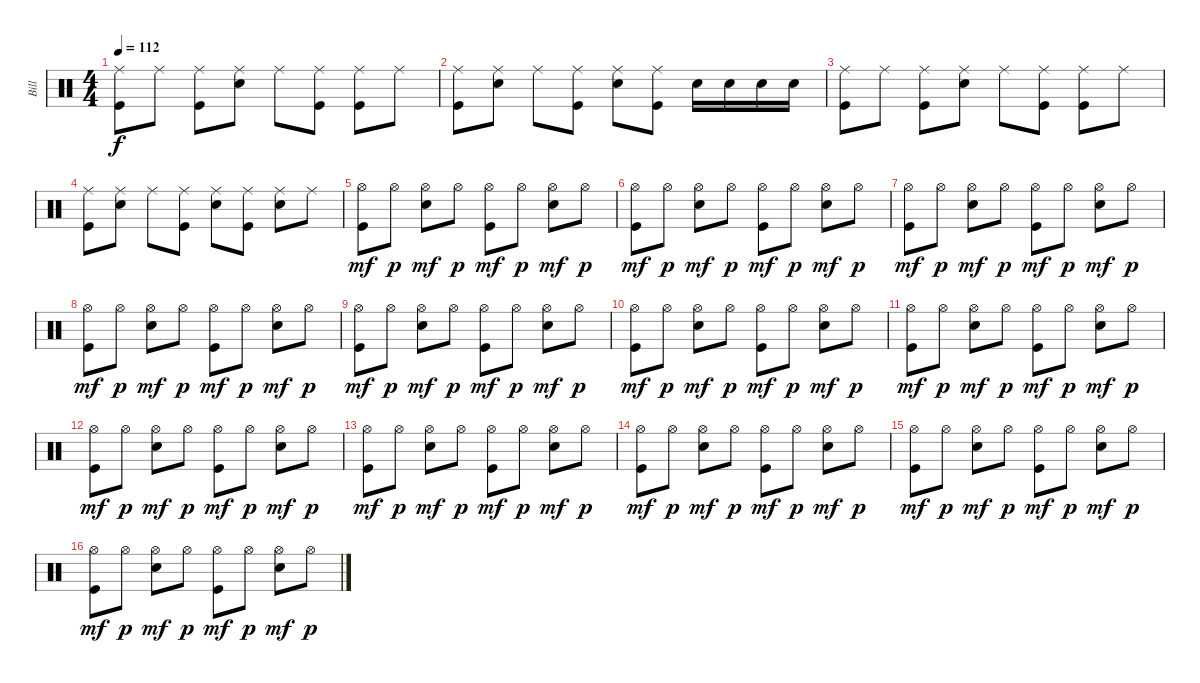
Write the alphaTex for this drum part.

\track ("Bill" "Bill") {instrument percussion}
\staff {score}
\articulation defaults
\ts (4 4)
\tempo 112
\clef neutral
\ks c
("Ride (middle)" "Kick (hit)").8{dy f} "Ride (middle)".8 ("Ride (middle)" "Kick (hit)").8 ("Ride (middle)" "Snare (hit) 2").8 "Ride (middle)".8 ("Ride (middle)" "Kick (hit)").8 ("Ride (middle)" "Kick (hit)").8 "Ride (middle)".8 |
("Ride (middle)" "Kick (hit)").8 ("Ride (middle)" "Snare (hit) 2").8 "Ride (middle)".8 ("Ride (middle)" "Kick (hit)").8 ("Ride (middle)" "Snare (hit) 2").8 ("Ride (middle)" "Kick (hit)").8 "Snare (hit) 2".16 "Snare (hit) 2".16 "Snare (hit) 2".16 "Snare (hit) 2".16 |
("Ride (middle)" "Kick (hit)").8 "Ride (middle)".8 ("Ride (middle)" "Kick (hit)").8 ("Ride (middle)" "Snare (hit) 2").8 "Ride (middle)".8 ("Ride (middle)" "Kick (hit)").8 ("Ride (middle)" "Kick (hit)").8 "Ride (middle)".8 |
("Ride (middle)" "Kick (hit)").8 ("Ride (middle)" "Snare (hit) 2").8 "Ride (middle)".8 ("Ride (middle)" "Kick (hit)").8 ("Ride (middle)" "Snare (hit) 2").8 ("Ride (middle)" "Kick (hit)").8 ("Ride (middle)" "Snare (hit) 2").8 "Ride (middle)".8 |
("Hi-Hat (open)" "Kick (hit)").8{dy mf} "Hi-Hat (open)".8{dy p} ("Hi-Hat (open)" "Snare (hit) 2").8{dy mf} "Hi-Hat (open)".8{dy p} ("Hi-Hat (open)" "Kick (hit)").8{dy mf} "Hi-Hat (open)".8{dy p} ("Hi-Hat (open)" "Snare (hit) 2").8{dy mf} "Hi-Hat (open)".8{dy p} |
("Hi-Hat (open)" "Kick (hit)").8{dy mf} "Hi-Hat (open)".8{dy p} ("Hi-Hat (open)" "Snare (hit) 2").8{dy mf} "Hi-Hat (open)".8{dy p} ("Hi-Hat (open)" "Kick (hit)").8{dy mf} "Hi-Hat (open)".8{dy p} ("Hi-Hat (open)" "Snare (hit) 2").8{dy mf} "Hi-Hat (open)".8{dy p} |
("Hi-Hat (open)" "Kick (hit)").8{dy mf} "Hi-Hat (open)".8{dy p} ("Hi-Hat (open)" "Snare (hit) 2").8{dy mf} "Hi-Hat (open)".8{dy p} ("Hi-Hat (open)" "Kick (hit)").8{dy mf} "Hi-Hat (open)".8{dy p} ("Hi-Hat (open)" "Snare (hit) 2").8{dy mf} "Hi-Hat (open)".8{dy p} |
("Hi-Hat (open)" "Kick (hit)").8{dy mf} "Hi-Hat (open)".8{dy p} ("Hi-Hat (open)" "Snare (hit) 2").8{dy mf} "Hi-Hat (open)".8{dy p} ("Hi-Hat (open)" "Kick (hit)").8{dy mf} "Hi-Hat (open)".8{dy p} ("Hi-Hat (open)" "Snare (hit) 2").8{dy mf} "Hi-Hat (open)".8{dy p} |
("Hi-Hat (open)" "Kick (hit)").8{dy mf} "Hi-Hat (open)".8{dy p} ("Hi-Hat (open)" "Snare (hit) 2").8{dy mf} "Hi-Hat (open)".8{dy p} ("Hi-Hat (open)" "Kick (hit)").8{dy mf} "Hi-Hat (open)".8{dy p} ("Hi-Hat (open)" "Snare (hit) 2").8{dy mf} "Hi-Hat (open)".8{dy p} |
("Hi-Hat (open)" "Kick (hit)").8{dy mf} "Hi-Hat (open)".8{dy p} ("Hi-Hat (open)" "Snare (hit) 2").8{dy mf} "Hi-Hat (open)".8{dy p} ("Hi-Hat (open)" "Kick (hit)").8{dy mf} "Hi-Hat (open)".8{dy p} ("Hi-Hat (open)" "Snare (hit) 2").8{dy mf} "Hi-Hat (open)".8{dy p} |
("Hi-Hat (open)" "Kick (hit)").8{dy mf} "Hi-Hat (open)".8{dy p} ("Hi-Hat (open)" "Snare (hit) 2").8{dy mf} "Hi-Hat (open)".8{dy p} ("Hi-Hat (open)" "Kick (hit)").8{dy mf} "Hi-Hat (open)".8{dy p} ("Hi-Hat (open)" "Snare (hit) 2").8{dy mf} "Hi-Hat (open)".8{dy p} |
("Hi-Hat (open)" "Kick (hit)").8{dy mf} "Hi-Hat (open)".8{dy p} ("Hi-Hat (open)" "Snare (hit) 2").8{dy mf} "Hi-Hat (open)".8{dy p} ("Hi-Hat (open)" "Kick (hit)").8{dy mf} "Hi-Hat (open)".8{dy p} ("Hi-Hat (open)" "Snare (hit) 2").8{dy mf} "Hi-Hat (open)".8{dy p} |
("Hi-Hat (open)" "Kick (hit)").8{dy mf} "Hi-Hat (open)".8{dy p} ("Hi-Hat (open)" "Snare (hit) 2").8{dy mf} "Hi-Hat (open)".8{dy p} ("Hi-Hat (open)" "Kick (hit)").8{dy mf} "Hi-Hat (open)".8{dy p} ("Hi-Hat (open)" "Snare (hit) 2").8{dy mf} "Hi-Hat (open)".8{dy p} |
("Hi-Hat (open)" "Kick (hit)").8{dy mf} "Hi-Hat (open)".8{dy p} ("Hi-Hat (open)" "Snare (hit) 2").8{dy mf} "Hi-Hat (open)".8{dy p} ("Hi-Hat (open)" "Kick (hit)").8{dy mf} "Hi-Hat (open)".8{dy p} ("Hi-Hat (open)" "Snare (hit) 2").8{dy mf} "Hi-Hat (open)".8{dy p} |
("Hi-Hat (open)" "Kick (hit)").8{dy mf} "Hi-Hat (open)".8{dy p} ("Hi-Hat (open)" "Snare (hit) 2").8{dy mf} "Hi-Hat (open)".8{dy p} ("Hi-Hat (open)" "Kick (hit)").8{dy mf} "Hi-Hat (open)".8{dy p} ("Hi-Hat (open)" "Snare (hit) 2").8{dy mf} "Hi-Hat (open)".8{dy p} |
("Hi-Hat (open)" "Kick (hit)").8{dy mf} "Hi-Hat (open)".8{dy p} ("Hi-Hat (open)" "Snare (hit) 2").8{dy mf} "Hi-Hat (open)".8{dy p} ("Hi-Hat (open)" "Kick (hit)").8{dy mf} "Hi-Hat (open)".8{dy p} ("Hi-Hat (open)" "Snare (hit) 2").8{dy mf} "Hi-Hat (open)".8{dy p}
